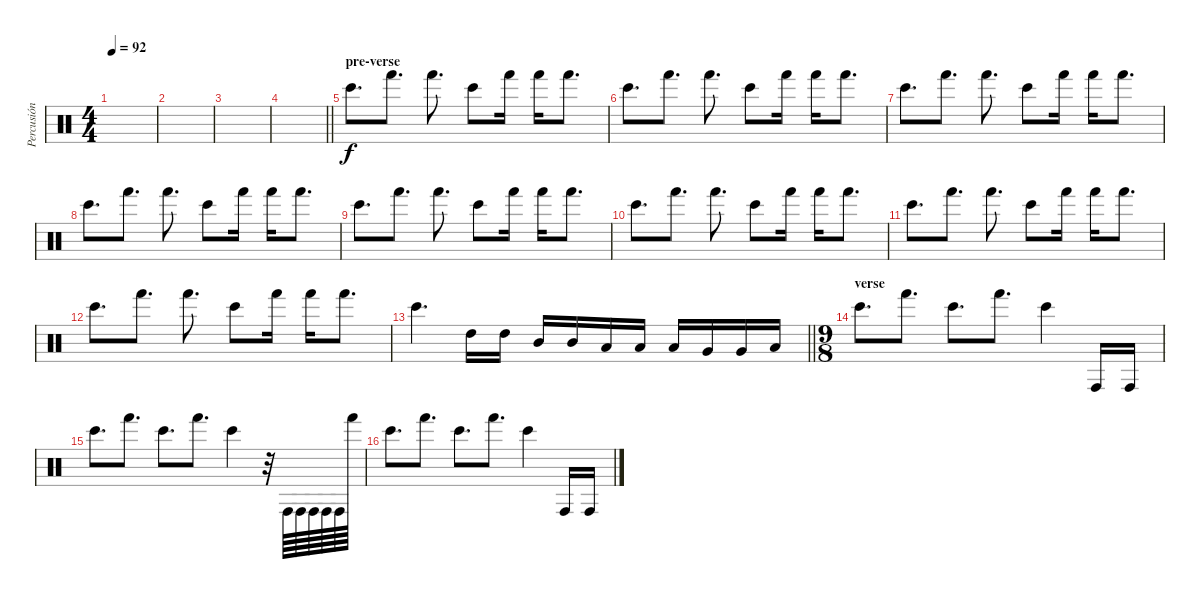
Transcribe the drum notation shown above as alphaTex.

\track ("Percusión" "Percusión") {instrument percussion}
\staff {score}
\articulation defaults
\ts (4 4)
\tempo 92
\clef neutral
\ks c
|
|
|
\barLineRight lightlight
|
\section ("" "pre-verse")
"Bongo High (hit)".8{d} "Hand (hit)".8{d} "Hand (hit)".8{d} "Bongo High (hit)".8 "Hand (hit)".16{volume 9} "Hand (hit)".16 "Hand (hit)".8{d volume 13} |
"Bongo High (hit)".8{d} "Hand (hit)".8{d} "Hand (hit)".8{d} "Bongo High (hit)".8 "Hand (hit)".16{volume 9} "Hand (hit)".16 "Hand (hit)".8{d volume 13} |
"Bongo High (hit)".8{d} "Hand (hit)".8{d} "Hand (hit)".8{d} "Bongo High (hit)".8 "Hand (hit)".16{volume 9} "Hand (hit)".16 "Hand (hit)".8{d volume 13} |
"Bongo High (hit)".8{d} "Hand (hit)".8{d} "Hand (hit)".8{d} "Bongo High (hit)".8 "Hand (hit)".16{volume 9} "Hand (hit)".16 "Hand (hit)".8{d volume 13} |
"Bongo High (hit)".8{d} "Hand (hit)".8{d} "Hand (hit)".8{d} "Bongo High (hit)".8 "Hand (hit)".16{volume 9} "Hand (hit)".16 "Hand (hit)".8{d volume 13} |
"Bongo High (hit)".8{d} "Hand (hit)".8{d} "Hand (hit)".8{d} "Bongo High (hit)".8 "Hand (hit)".16{volume 9} "Hand (hit)".16 "Hand (hit)".8{d volume 13} |
"Bongo High (hit)".8{d} "Hand (hit)".8{d} "Hand (hit)".8{d} "Bongo High (hit)".8 "Hand (hit)".16{volume 9} "Hand (hit)".16 "Hand (hit)".8{d volume 13} |
"Bongo High (hit)".8{d} "Hand (hit)".8{d} "Hand (hit)".8{d} "Bongo High (hit)".8 "Hand (hit)".16{volume 9} "Hand (hit)".16 "Hand (hit)".8{d volume 13} |
\barLineRight lightlight "Bongo High (hit)".4{d} "High Tom (hit)".16{volume 10} "High Tom (hit)".16 "Mid Tom (hit)".16 "Mid Tom (hit)".16 "Low Tom (hit)".16 "Low Tom (hit)".16 "Low Tom (hit)".16 "Very Low Tom (hit)".16 "Very Low Tom (hit)".16 "Low Floor Tom (hit)".16
|
\ts (9 8)
\section ("" "verse")
"Bongo High (hit)".8{d} "Hand (hit)".8{d} "Bongo High (hit)".8{d} "Hand (hit)".8{d} "Bongo High (hit)".4 "Conga high (hit)".16 "Conga high (hit)".16 |
"Bongo High (hit)".8{d} "Hand (hit)".8{d} "Bongo High (hit)".8{d} "Hand (hit)".8{d} "Bongo High (hit)".4 r.32 "Conga high (hit)".64 "Conga high (hit)".64 "Conga high (hit)".64 "Conga high (hit)".64 "Conga high (hit)".64 "Hand (hit)".64 |
"Bongo High (hit)".8{d} "Hand (hit)".8{d} "Bongo High (hit)".8{d} "Hand (hit)".8{d} "Bongo High (hit)".4 "Conga high (hit)".16 "Conga high (hit)".16
